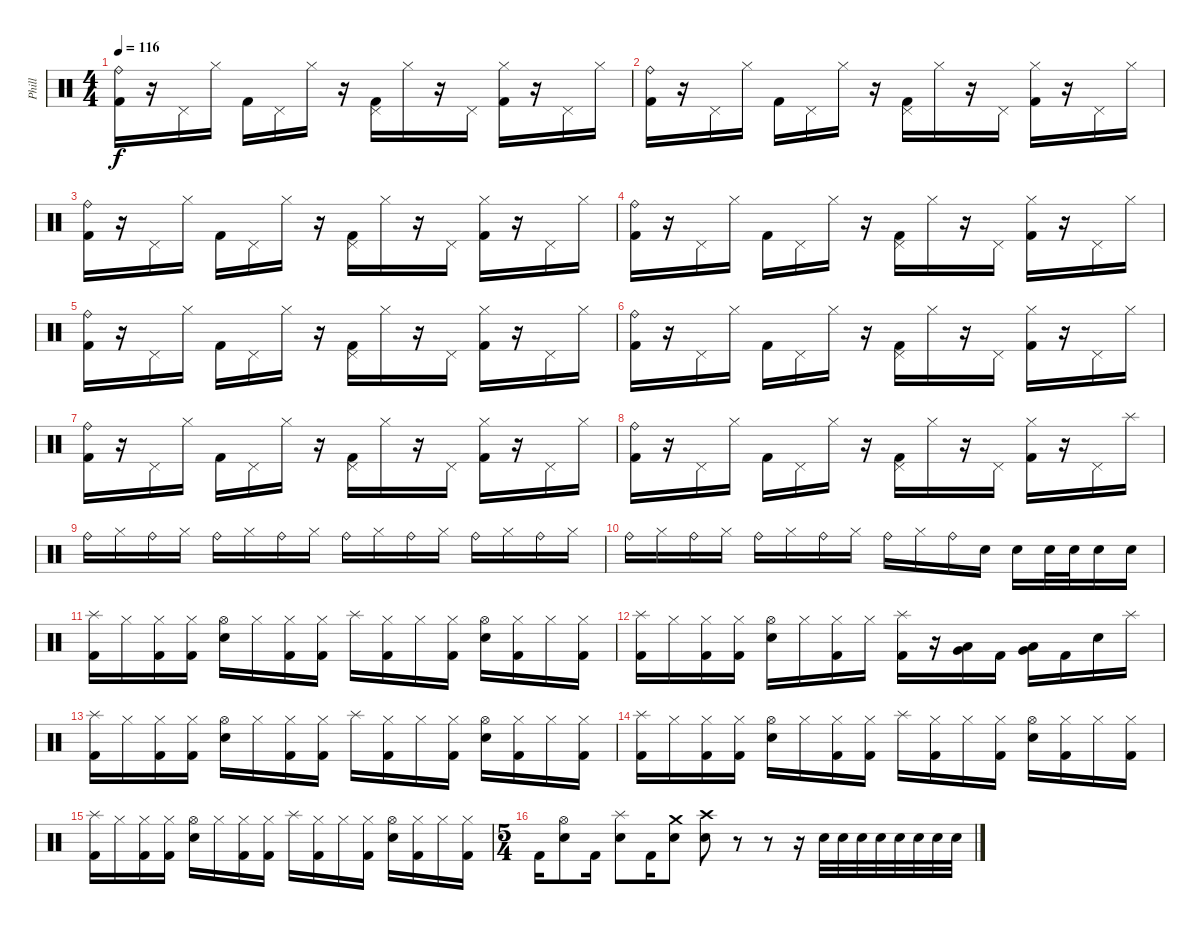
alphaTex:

\track ("Phill" "Phill") {instrument percussion}
\staff {score}
\articulation defaults
\ts (4 4)
\tempo 116
\clef neutral
\ks c
("Ride (bell)" "Kick (hit) 2").16{dy f} r.16 "Pedal Hi-Hat (hit)".16 "Hi-Hat (closed)".16 "Kick (hit) 2".16 "Pedal Hi-Hat (hit)".16 "Hi-Hat (closed)".16 r.16 ("Pedal Hi-Hat (hit)" "Kick (hit) 2").16 "Hi-Hat (closed)".16 r.16 "Pedal Hi-Hat (hit)".16 ("Hi-Hat (closed)" "Kick (hit) 2").16 r.16 "Pedal Hi-Hat (hit)".16 "Hi-Hat (closed)".16 |
("Ride (bell)" "Kick (hit) 2").16 r.16 "Pedal Hi-Hat (hit)".16 "Hi-Hat (closed)".16 "Kick (hit) 2".16 "Pedal Hi-Hat (hit)".16 "Hi-Hat (closed)".16 r.16 ("Pedal Hi-Hat (hit)" "Kick (hit) 2").16 "Hi-Hat (closed)".16 r.16 "Pedal Hi-Hat (hit)".16 ("Hi-Hat (closed)" "Kick (hit) 2").16 r.16 "Pedal Hi-Hat (hit)".16 "Hi-Hat (closed)".16 |
("Ride (bell)" "Kick (hit) 2").16 r.16 "Pedal Hi-Hat (hit)".16 "Hi-Hat (closed)".16 "Kick (hit) 2".16 "Pedal Hi-Hat (hit)".16 "Hi-Hat (closed)".16 r.16 ("Pedal Hi-Hat (hit)" "Kick (hit) 2").16 "Hi-Hat (closed)".16 r.16 "Pedal Hi-Hat (hit)".16 ("Hi-Hat (closed)" "Kick (hit) 2").16 r.16 "Pedal Hi-Hat (hit)".16 "Hi-Hat (closed)".16 |
("Ride (bell)" "Kick (hit) 2").16 r.16 "Pedal Hi-Hat (hit)".16 "Hi-Hat (closed)".16 "Kick (hit) 2".16 "Pedal Hi-Hat (hit)".16 "Hi-Hat (closed)".16 r.16 ("Pedal Hi-Hat (hit)" "Kick (hit) 2").16 "Hi-Hat (closed)".16 r.16 "Pedal Hi-Hat (hit)".16 ("Hi-Hat (closed)" "Kick (hit) 2").16 r.16 "Pedal Hi-Hat (hit)".16 "Hi-Hat (closed)".16 |
("Ride (bell)" "Kick (hit) 2").16 r.16 "Pedal Hi-Hat (hit)".16 "Hi-Hat (closed)".16 "Kick (hit) 2".16 "Pedal Hi-Hat (hit)".16 "Hi-Hat (closed)".16 r.16 ("Pedal Hi-Hat (hit)" "Kick (hit) 2").16 "Hi-Hat (closed)".16 r.16 "Pedal Hi-Hat (hit)".16 ("Hi-Hat (closed)" "Kick (hit) 2").16 r.16 "Pedal Hi-Hat (hit)".16 "Hi-Hat (closed)".16 |
("Ride (bell)" "Kick (hit) 2").16 r.16 "Pedal Hi-Hat (hit)".16 "Hi-Hat (closed)".16 "Kick (hit) 2".16 "Pedal Hi-Hat (hit)".16 "Hi-Hat (closed)".16 r.16 ("Pedal Hi-Hat (hit)" "Kick (hit) 2").16 "Hi-Hat (closed)".16 r.16 "Pedal Hi-Hat (hit)".16 ("Hi-Hat (closed)" "Kick (hit) 2").16 r.16 "Pedal Hi-Hat (hit)".16 "Hi-Hat (closed)".16 |
("Ride (bell)" "Kick (hit) 2").16 r.16 "Pedal Hi-Hat (hit)".16 "Hi-Hat (closed)".16 "Kick (hit) 2".16 "Pedal Hi-Hat (hit)".16 "Hi-Hat (closed)".16 r.16 ("Pedal Hi-Hat (hit)" "Kick (hit) 2").16 "Hi-Hat (closed)".16 r.16 "Pedal Hi-Hat (hit)".16 ("Hi-Hat (closed)" "Kick (hit) 2").16 r.16 "Pedal Hi-Hat (hit)".16 "Hi-Hat (closed)".16 |
("Ride (bell)" "Kick (hit) 2").16 r.16 "Pedal Hi-Hat (hit)".16 "Hi-Hat (closed)".16 "Kick (hit) 2".16 "Pedal Hi-Hat (hit)".16 "Hi-Hat (closed)".16 r.16 ("Pedal Hi-Hat (hit)" "Kick (hit) 2").16 "Hi-Hat (closed)".16 r.16 "Pedal Hi-Hat (hit)".16 ("Hi-Hat (closed)" "Kick (hit) 2").16 r.16 "Pedal Hi-Hat (hit)".16 "Splash (hit)".16 |
"Ride (bell)".16 "Hi-Hat (closed)".16 "Ride (bell)".16 "Hi-Hat (closed)".16 "Ride (bell)".16 "Hi-Hat (closed)".16 "Ride (bell)".16 "Hi-Hat (closed)".16 "Ride (bell)".16 "Hi-Hat (closed)".16 "Ride (bell)".16 "Hi-Hat (closed)".16 "Ride (bell)".16 "Hi-Hat (closed)".16 "Ride (bell)".16 "Hi-Hat (closed)".16 |
"Ride (bell)".16 "Hi-Hat (closed)".16 "Ride (bell)".16 "Hi-Hat (closed)".16 "Ride (bell)".16 "Hi-Hat (closed)".16 "Ride (bell)".16 "Hi-Hat (closed)".16 "Ride (bell)".16 "Hi-Hat (closed)".16 "Ride (bell)".16 "Electric Snare (hit)".16 "Electric Snare (hit)".16 "Electric Snare (hit)".32 "Electric Snare (hit)".32 "Electric Snare (hit)".16 "Electric Snare (hit)".16 |
("Splash (hit)" "Kick (hit) 2").16 "Hi-Hat (closed)".16 ("Hi-Hat (closed)" "Kick (hit) 2").16 ("Hi-Hat (closed)" "Kick (hit) 2").16 ("Hi-Hat (open)" "Electric Snare (hit)").16 "Hi-Hat (closed)".16 ("Hi-Hat (closed)" "Kick (hit) 2").16 ("Hi-Hat (closed)" "Kick (hit) 2").16 "Splash (hit)".16 ("Hi-Hat (closed)" "Kick (hit) 2").16 "Hi-Hat (closed)".16 ("Hi-Hat (closed)" "Kick (hit) 2").16 ("Hi-Hat (open)" "Electric Snare (hit)").16 ("Hi-Hat (closed)" "Kick (hit) 2").16 "Hi-Hat (closed)".16 ("Hi-Hat (closed)" "Kick (hit) 2").16 |
("Splash (hit)" "Kick (hit) 2").16 "Hi-Hat (closed)".16 ("Hi-Hat (closed)" "Kick (hit) 2").16 ("Hi-Hat (closed)" "Kick (hit) 2").16 ("Hi-Hat (open)" "Electric Snare (hit)").16 "Hi-Hat (closed)".16 ("Hi-Hat (closed)" "Kick (hit) 2").16 "Hi-Hat (closed)".16 ("Splash (hit)" "Kick (hit) 2").16 r.16 ("Very Low Tom (hit)" "Low Tom (hit)").16 "Kick (hit) 2".16 ("Very Low Tom (hit)" "Low Tom (hit)").16 "Kick (hit) 2".16 "Electric Snare (hit)".16 "Splash (hit)".16 |
("Splash (hit)" "Kick (hit) 2").16 "Hi-Hat (closed)".16 ("Hi-Hat (closed)" "Kick (hit) 2").16 ("Hi-Hat (closed)" "Kick (hit) 2").16 ("Hi-Hat (open)" "Electric Snare (hit)").16 "Hi-Hat (closed)".16 ("Hi-Hat (closed)" "Kick (hit) 2").16 ("Hi-Hat (closed)" "Kick (hit) 2").16 "Splash (hit)".16 ("Hi-Hat (closed)" "Kick (hit) 2").16 "Hi-Hat (closed)".16 ("Hi-Hat (closed)" "Kick (hit) 2").16 ("Hi-Hat (open)" "Electric Snare (hit)").16 ("Hi-Hat (closed)" "Kick (hit) 2").16 "Hi-Hat (closed)".16 ("Hi-Hat (closed)" "Kick (hit) 2").16 |
("Splash (hit)" "Kick (hit) 2").16 "Hi-Hat (closed)".16 ("Hi-Hat (closed)" "Kick (hit) 2").16 ("Hi-Hat (closed)" "Kick (hit) 2").16 ("Hi-Hat (open)" "Electric Snare (hit)").16 "Hi-Hat (closed)".16 ("Hi-Hat (closed)" "Kick (hit) 2").16 ("Hi-Hat (closed)" "Kick (hit) 2").16 "Splash (hit)".16 ("Hi-Hat (closed)" "Kick (hit) 2").16 "Hi-Hat (closed)".16 ("Hi-Hat (closed)" "Kick (hit) 2").16 ("Hi-Hat (open)" "Electric Snare (hit)").16 ("Hi-Hat (closed)" "Kick (hit) 2").16 "Hi-Hat (closed)".16 ("Hi-Hat (closed)" "Kick (hit) 2").16 |
("Splash (hit)" "Kick (hit) 2").16 "Hi-Hat (closed)".16 ("Hi-Hat (closed)" "Kick (hit) 2").16 ("Hi-Hat (closed)" "Kick (hit) 2").16 ("Hi-Hat (open)" "Electric Snare (hit)").16 "Hi-Hat (closed)".16 ("Hi-Hat (closed)" "Kick (hit) 2").16 ("Hi-Hat (closed)" "Kick (hit) 2").16 "Splash (hit)".16 ("Hi-Hat (closed)" "Kick (hit) 2").16 "Hi-Hat (closed)".16 ("Hi-Hat (closed)" "Kick (hit) 2").16 ("Hi-Hat (open)" "Electric Snare (hit)").16 ("Hi-Hat (closed)" "Kick (hit) 2").16 "Hi-Hat (closed)".16 ("Hi-Hat (closed)" "Kick (hit) 2").16 |
\ts (5 4)
"Kick (hit) 2".16 ("Hi-Hat (open)" "Electric Snare (hit)").8 "Kick (hit) 2".16 ("Splash (hit)" "Electric Snare (hit)").8 "Kick (hit) 2".16 ("Crash medium (hit)" "Electric Snare (hit)").8 ("Crash high (hit)" "Electric Snare (hit)").8 r.8 r.8 r.16 "Electric Snare (hit)".32 "Electric Snare (hit)".32 "Electric Snare (hit)".32 "Electric Snare (hit)".32 "Electric Snare (hit)".32 "Electric Snare (hit)".32 "Electric Snare (hit)".32 "Electric Snare (hit)".32
